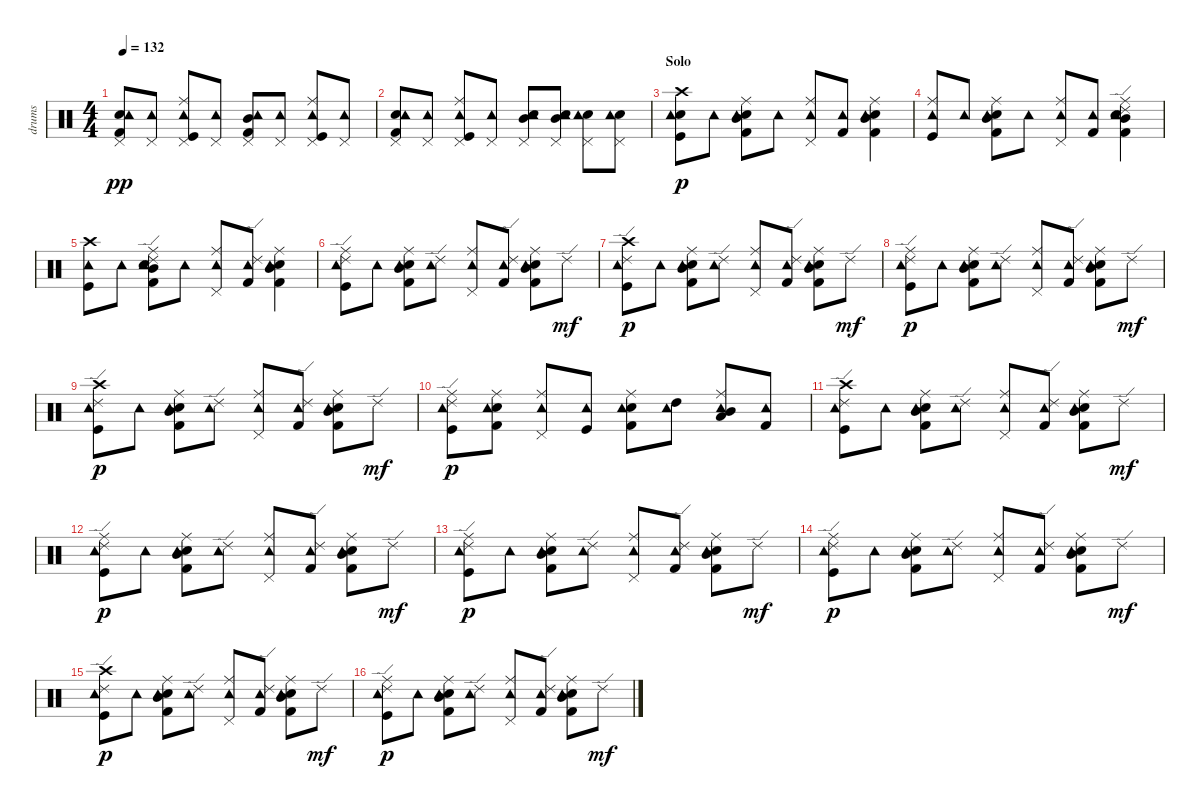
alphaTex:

\track ("drums" "drums") {instrument percussion}
\staff {score}
\articulation defaults
\ts (4 4)
\tempo 132
\clef neutral
\ks c
("Electric Snare (hit)" "Kick (hit) 2" "Pedal Hi-Hat (hit)" "Tambourine (hit)").8{dy pp} ("Pedal Hi-Hat (hit)" "Tambourine (hit)").8 ("Ride (middle)" "Kick (hit)" "Pedal Hi-Hat (hit)" "Tambourine (hit)").8 ("Pedal Hi-Hat (hit)" "Tambourine (hit)").8 ("Mid Tom (hit)" "Kick (hit) 2" "Pedal Hi-Hat (hit)" "Tambourine (hit)").8 ("Pedal Hi-Hat (hit)" "Tambourine (hit)").8 ("Ride (middle)" "Kick (hit)" "Pedal Hi-Hat (hit)" "Tambourine (hit)").8 ("Pedal Hi-Hat (hit)" "Tambourine (hit)").8 |
("Electric Snare (hit)" "Kick (hit) 2" "Pedal Hi-Hat (hit)" "Tambourine (hit)").8 ("Pedal Hi-Hat (hit)" "Tambourine (hit)").8 ("Ride (middle)" "Kick (hit)" "Pedal Hi-Hat (hit)" "Tambourine (hit)").8 ("Pedal Hi-Hat (hit)" "Tambourine (hit)").8 ("Snare (hit) 2"{tr (38 16)} "Mid Tom (hit)"{tr (47 16)} "Pedal Hi-Hat (hit)" "Tambourine (hit)").8 ("Snare (hit) 2"{tr (38 16)} "Mid Tom (hit)"{tr (47 16)} "Pedal Hi-Hat (hit)" "Tambourine (hit)").8 ("Electric Snare (hit)"{tr (40 16)} "Pedal Hi-Hat (hit)" "Tambourine (hit)").8 ("Electric Snare (hit)"{tr (40 16)} "Pedal Hi-Hat (hit)" "Tambourine (hit)").8 |
\section ("" "Solo")
("Electric Snare (hit)" "Kick (hit)" "Crash high (hit)" "Tambourine (hit)").8{dy p} "Tambourine (hit)".8 ("Electric Snare (hit)" "Mid Tom (hit)" "Kick (hit) 2" "Ride (middle)" "Tambourine (hit)").8 "Tambourine (hit)".8 ("Pedal Hi-Hat (hit)" "Ride (middle)" "Tambourine (hit)").8 ("Kick (hit) 2" "Tambourine (hit)").8 ("Electric Snare (hit)" "Mid Tom (hit)" "Kick (hit) 2" "Ride (middle)" "Tambourine (hit)").4 |
("Kick (hit)" "Ride (middle)" "Tambourine (hit)").8 "Tambourine (hit)".8 ("Electric Snare (hit)" "Mid Tom (hit)" "Kick (hit) 2" "Ride (middle)" "Tambourine (hit)").8 "Tambourine (hit)".8 ("Pedal Hi-Hat (hit)" "Ride (middle)" "Tambourine (hit)").8 ("Kick (hit) 2" "Tambourine (hit)").8 ("Ride (edge) 2" "Electric Snare (hit)" "Mid Tom (hit)" "Kick (hit) 2" "Ride (middle)" "Tambourine (hit)").4 |
("Kick (hit)" "Crash high (hit)" "Tambourine (hit)").8 "Tambourine (hit)".8 ("Ride (edge) 2" "Electric Snare (hit)" "Mid Tom (hit)" "Kick (hit) 2" "Ride (middle)" "Tambourine (hit)").8 "Tambourine (hit)".8 ("Pedal Hi-Hat (hit)" "Ride (middle)" "Tambourine (hit)").8 ("Ride (edge) 2" "Kick (hit) 2" "Tambourine (hit)").8 ("Electric Snare (hit)" "Mid Tom (hit)" "Kick (hit) 2" "Ride (middle)" "Tambourine (hit)").4 |
("Ride (edge) 2" "Kick (hit)" "Ride (middle)" "Tambourine (hit)").8 "Tambourine (hit)".8 ("Electric Snare (hit)" "Mid Tom (hit)" "Kick (hit) 2" "Ride (middle)" "Tambourine (hit)").8 ("Ride (edge) 2" "Tambourine (hit)").8 ("Pedal Hi-Hat (hit)" "Ride (middle)" "Tambourine (hit)").8 ("Ride (edge) 2" "Kick (hit) 2" "Tambourine (hit)").8 ("Electric Snare (hit)" "Mid Tom (hit)" "Kick (hit) 2" "Ride (middle)" "Tambourine (hit)").8 "Ride (edge) 2".8{dy mf} |
("Ride (edge) 2" "Kick (hit)" "Crash high (hit)" "Tambourine (hit)").8{dy p} "Tambourine (hit)".8 ("Electric Snare (hit)" "Mid Tom (hit)" "Kick (hit) 2" "Ride (middle)" "Tambourine (hit)").8 ("Ride (edge) 2" "Tambourine (hit)").8 ("Pedal Hi-Hat (hit)" "Ride (middle)" "Tambourine (hit)").8 ("Ride (edge) 2" "Kick (hit) 2" "Tambourine (hit)").8 ("Electric Snare (hit)" "Mid Tom (hit)" "Kick (hit) 2" "Ride (middle)" "Tambourine (hit)").8 "Ride (edge) 2".8{dy mf} |
("Ride (edge) 2" "Kick (hit)" "Ride (middle)" "Tambourine (hit)").8{dy p} "Tambourine (hit)".8 ("Electric Snare (hit)" "Mid Tom (hit)" "Kick (hit) 2" "Ride (middle)" "Tambourine (hit)").8 ("Ride (edge) 2" "Tambourine (hit)").8 ("Pedal Hi-Hat (hit)" "Ride (middle)" "Tambourine (hit)").8 ("Ride (edge) 2" "Kick (hit) 2" "Tambourine (hit)").8 ("Electric Snare (hit)" "Mid Tom (hit)" "Kick (hit) 2" "Ride (middle)" "Tambourine (hit)").8 "Ride (edge) 2".8{dy mf} |
("Ride (edge) 2" "Kick (hit)" "Crash high (hit)" "Tambourine (hit)").8{dy p} "Tambourine (hit)".8 ("Electric Snare (hit)" "Mid Tom (hit)" "Kick (hit) 2" "Ride (middle)" "Tambourine (hit)").8 ("Ride (edge) 2" "Tambourine (hit)").8 ("Pedal Hi-Hat (hit)" "Ride (middle)" "Tambourine (hit)").8 ("Ride (edge) 2" "Kick (hit) 2" "Tambourine (hit)").8 ("Electric Snare (hit)" "Mid Tom (hit)" "Kick (hit) 2" "Ride (middle)" "Tambourine (hit)").8 "Ride (edge) 2".8{dy mf} |
("Ride (edge) 2" "Kick (hit)" "Ride (middle)" "Tambourine (hit)").8{dy p} ("Electric Snare (hit)" "Kick (hit) 2" "Ride (middle)" "Tambourine (hit)").8 ("Pedal Hi-Hat (hit)" "Ride (middle)" "Tambourine (hit)").8 ("Kick (hit)" "Tambourine (hit)").8 ("Electric Snare (hit)" "Kick (hit) 2" "Ride (middle)" "Tambourine (hit)").8 ("High Tom (hit)"{tr (48 16)} "Tambourine (hit)").8 ("Low Tom (hit)" "Mid Tom (hit)" "Ride (middle)" "Tambourine (hit)").8 ("Kick (hit) 2" "Tambourine (hit)").8 |
("Ride (edge) 2" "Kick (hit)" "Crash high (hit)" "Tambourine (hit)").8 "Tambourine (hit)".8 ("Electric Snare (hit)" "Mid Tom (hit)" "Kick (hit) 2" "Ride (middle)" "Tambourine (hit)").8 ("Ride (edge) 2" "Tambourine (hit)").8 ("Pedal Hi-Hat (hit)" "Ride (middle)" "Tambourine (hit)").8 ("Ride (edge) 2" "Kick (hit) 2" "Tambourine (hit)").8 ("Electric Snare (hit)" "Mid Tom (hit)" "Kick (hit) 2" "Ride (middle)" "Tambourine (hit)").8 "Ride (edge) 2".8{dy mf} |
("Ride (edge) 2" "Kick (hit)" "Ride (middle)" "Tambourine (hit)").8{dy p} "Tambourine (hit)".8 ("Electric Snare (hit)" "Mid Tom (hit)" "Kick (hit) 2" "Ride (middle)" "Tambourine (hit)").8 ("Ride (edge) 2" "Tambourine (hit)").8 ("Pedal Hi-Hat (hit)" "Ride (middle)" "Tambourine (hit)").8 ("Ride (edge) 2" "Kick (hit) 2" "Tambourine (hit)").8 ("Electric Snare (hit)" "Mid Tom (hit)" "Kick (hit) 2" "Ride (middle)" "Tambourine (hit)").8 "Ride (edge) 2".8{dy mf} |
("Ride (edge) 2" "Kick (hit)" "Ride (middle)" "Tambourine (hit)").8{dy p} "Tambourine (hit)".8 ("Electric Snare (hit)" "Mid Tom (hit)" "Kick (hit) 2" "Ride (middle)" "Tambourine (hit)").8 ("Ride (edge) 2" "Tambourine (hit)").8 ("Pedal Hi-Hat (hit)" "Ride (middle)" "Tambourine (hit)").8 ("Ride (edge) 2" "Kick (hit) 2" "Tambourine (hit)").8 ("Electric Snare (hit)" "Mid Tom (hit)" "Kick (hit) 2" "Ride (middle)" "Tambourine (hit)").8 "Ride (edge) 2".8{dy mf} |
("Ride (edge) 2" "Kick (hit)" "Ride (middle)" "Tambourine (hit)").8{dy p} "Tambourine (hit)".8 ("Electric Snare (hit)" "Mid Tom (hit)" "Kick (hit) 2" "Ride (middle)" "Tambourine (hit)").8 ("Ride (edge) 2" "Tambourine (hit)").8 ("Pedal Hi-Hat (hit)" "Ride (middle)" "Tambourine (hit)").8 ("Ride (edge) 2" "Kick (hit) 2" "Tambourine (hit)").8 ("Electric Snare (hit)" "Mid Tom (hit)" "Kick (hit) 2" "Ride (middle)" "Tambourine (hit)").8 "Ride (edge) 2".8{dy mf} |
("Ride (edge) 2" "Kick (hit)" "Crash high (hit)" "Tambourine (hit)").8{dy p} "Tambourine (hit)".8 ("Electric Snare (hit)" "Mid Tom (hit)" "Kick (hit) 2" "Ride (middle)" "Tambourine (hit)").8 ("Ride (edge) 2" "Tambourine (hit)").8 ("Pedal Hi-Hat (hit)" "Ride (middle)" "Tambourine (hit)").8 ("Ride (edge) 2" "Kick (hit) 2" "Tambourine (hit)").8 ("Electric Snare (hit)" "Mid Tom (hit)" "Kick (hit) 2" "Ride (middle)" "Tambourine (hit)").8 "Ride (edge) 2".8{dy mf} |
("Ride (edge) 2" "Kick (hit)" "Ride (middle)" "Tambourine (hit)").8{dy p} "Tambourine (hit)".8 ("Electric Snare (hit)" "Mid Tom (hit)" "Kick (hit) 2" "Ride (middle)" "Tambourine (hit)").8 ("Ride (edge) 2" "Tambourine (hit)").8 ("Pedal Hi-Hat (hit)" "Ride (middle)" "Tambourine (hit)").8 ("Ride (edge) 2" "Kick (hit) 2" "Tambourine (hit)").8 ("Electric Snare (hit)" "Mid Tom (hit)" "Kick (hit) 2" "Ride (middle)" "Tambourine (hit)").8 "Ride (edge) 2".8{dy mf}
